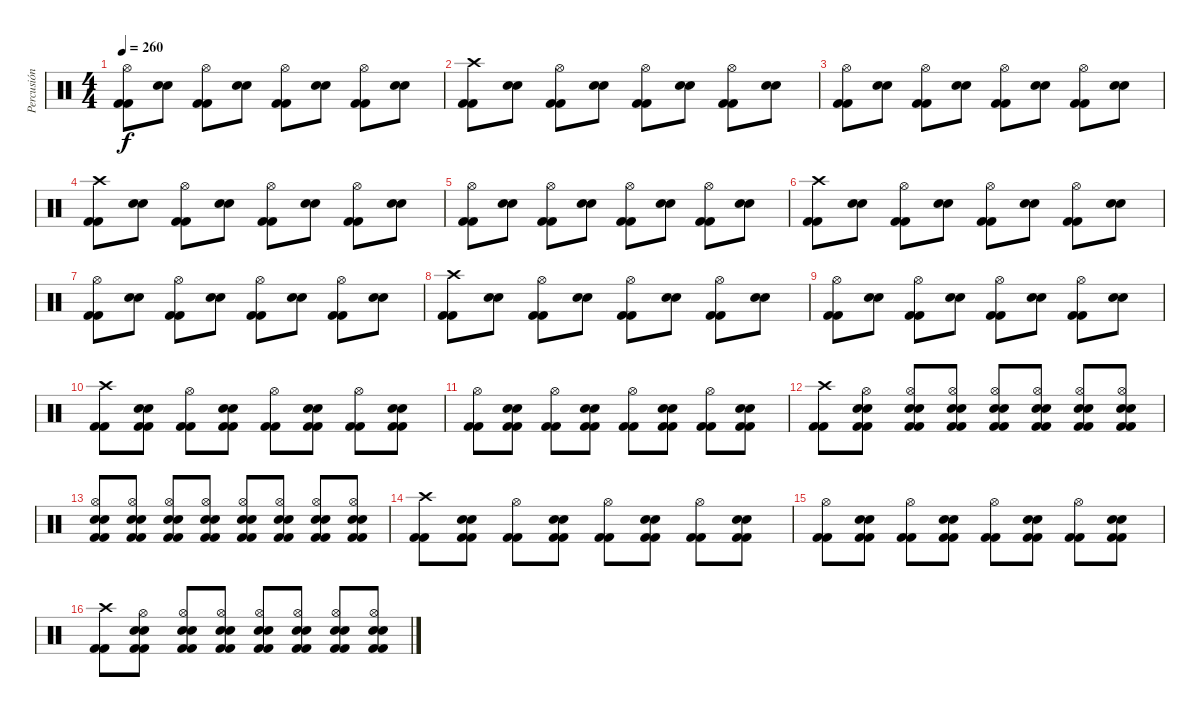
\track ("Percusión" "Percusión") {instrument percussion}
\staff {score}
\articulation defaults
\ts (4 4)
\tempo 260
\clef neutral
\ks c
("Kick (hit) 2" "Kick (hit) 2" "Hi-Hat (open)").8{dy f} ("Electric Snare (hit)" "Electric Snare (hit)").8 ("Kick (hit) 2" "Kick (hit) 2" "Hi-Hat (open)").8 ("Electric Snare (hit)" "Electric Snare (hit)").8 ("Kick (hit) 2" "Kick (hit) 2" "Hi-Hat (open)").8 ("Electric Snare (hit)" "Electric Snare (hit)").8 ("Kick (hit) 2" "Kick (hit) 2" "Hi-Hat (open)").8 ("Electric Snare (hit)" "Electric Snare (hit)").8 |
("Kick (hit) 2" "Kick (hit) 2" "Crash high (hit)").8 ("Electric Snare (hit)" "Electric Snare (hit)").8 ("Kick (hit) 2" "Kick (hit) 2" "Hi-Hat (open)").8 ("Electric Snare (hit)" "Electric Snare (hit)").8 ("Kick (hit) 2" "Kick (hit) 2" "Hi-Hat (open)").8 ("Electric Snare (hit)" "Electric Snare (hit)").8 ("Kick (hit) 2" "Kick (hit) 2" "Hi-Hat (open)").8 ("Electric Snare (hit)" "Electric Snare (hit)").8 |
("Kick (hit) 2" "Kick (hit) 2" "Hi-Hat (open)").8 ("Electric Snare (hit)" "Electric Snare (hit)").8 ("Kick (hit) 2" "Kick (hit) 2" "Hi-Hat (open)").8 ("Electric Snare (hit)" "Electric Snare (hit)").8 ("Kick (hit) 2" "Kick (hit) 2" "Hi-Hat (open)").8 ("Electric Snare (hit)" "Electric Snare (hit)").8 ("Kick (hit) 2" "Kick (hit) 2" "Hi-Hat (open)").8 ("Electric Snare (hit)" "Electric Snare (hit)").8 |
("Kick (hit) 2" "Kick (hit) 2" "Crash high (hit)").8 ("Electric Snare (hit)" "Electric Snare (hit)").8 ("Kick (hit) 2" "Kick (hit) 2" "Hi-Hat (open)").8 ("Electric Snare (hit)" "Electric Snare (hit)").8 ("Kick (hit) 2" "Kick (hit) 2" "Hi-Hat (open)").8 ("Electric Snare (hit)" "Electric Snare (hit)").8 ("Kick (hit) 2" "Kick (hit) 2" "Hi-Hat (open)").8 ("Electric Snare (hit)" "Electric Snare (hit)").8 |
("Kick (hit) 2" "Kick (hit) 2" "Hi-Hat (open)").8 ("Electric Snare (hit)" "Electric Snare (hit)").8 ("Kick (hit) 2" "Kick (hit) 2" "Hi-Hat (open)").8 ("Electric Snare (hit)" "Electric Snare (hit)").8 ("Kick (hit) 2" "Kick (hit) 2" "Hi-Hat (open)").8 ("Electric Snare (hit)" "Electric Snare (hit)").8 ("Kick (hit) 2" "Kick (hit) 2" "Hi-Hat (open)").8 ("Electric Snare (hit)" "Electric Snare (hit)").8 |
("Kick (hit) 2" "Kick (hit) 2" "Crash high (hit)").8 ("Electric Snare (hit)" "Electric Snare (hit)").8 ("Kick (hit) 2" "Kick (hit) 2" "Hi-Hat (open)").8 ("Electric Snare (hit)" "Electric Snare (hit)").8 ("Kick (hit) 2" "Kick (hit) 2" "Hi-Hat (open)").8 ("Electric Snare (hit)" "Electric Snare (hit)").8 ("Kick (hit) 2" "Kick (hit) 2" "Hi-Hat (open)").8 ("Electric Snare (hit)" "Electric Snare (hit)").8 |
("Kick (hit) 2" "Kick (hit) 2" "Hi-Hat (open)").8 ("Electric Snare (hit)" "Electric Snare (hit)").8 ("Kick (hit) 2" "Kick (hit) 2" "Hi-Hat (open)").8 ("Electric Snare (hit)" "Electric Snare (hit)").8 ("Kick (hit) 2" "Kick (hit) 2" "Hi-Hat (open)").8 ("Electric Snare (hit)" "Electric Snare (hit)").8 ("Kick (hit) 2" "Kick (hit) 2" "Hi-Hat (open)").8 ("Electric Snare (hit)" "Electric Snare (hit)").8 |
("Kick (hit) 2" "Kick (hit) 2" "Crash high (hit)").8 ("Electric Snare (hit)" "Electric Snare (hit)").8 ("Kick (hit) 2" "Kick (hit) 2" "Hi-Hat (open)").8 ("Electric Snare (hit)" "Electric Snare (hit)").8 ("Kick (hit) 2" "Kick (hit) 2" "Hi-Hat (open)").8 ("Electric Snare (hit)" "Electric Snare (hit)").8 ("Kick (hit) 2" "Kick (hit) 2" "Hi-Hat (open)").8 ("Electric Snare (hit)" "Electric Snare (hit)").8 |
("Kick (hit) 2" "Kick (hit) 2" "Hi-Hat (open)").8 ("Electric Snare (hit)" "Electric Snare (hit)").8 ("Kick (hit) 2" "Kick (hit) 2" "Hi-Hat (open)").8 ("Electric Snare (hit)" "Electric Snare (hit)").8 ("Kick (hit) 2" "Kick (hit) 2" "Hi-Hat (open)").8 ("Electric Snare (hit)" "Electric Snare (hit)").8 ("Kick (hit) 2" "Kick (hit) 2" "Hi-Hat (open)").8 ("Electric Snare (hit)" "Electric Snare (hit)").8 |
("Kick (hit) 2" "Kick (hit) 2" "Crash high (hit)").8 ("Kick (hit) 2" "Kick (hit) 2" "Electric Snare (hit)" "Electric Snare (hit)").8 ("Kick (hit) 2" "Kick (hit) 2" "Hi-Hat (open)").8 ("Kick (hit) 2" "Kick (hit) 2" "Electric Snare (hit)" "Electric Snare (hit)").8 ("Kick (hit) 2" "Kick (hit) 2" "Hi-Hat (open)").8 ("Kick (hit) 2" "Kick (hit) 2" "Electric Snare (hit)" "Electric Snare (hit)").8 ("Kick (hit) 2" "Kick (hit) 2" "Hi-Hat (open)").8 ("Kick (hit) 2" "Kick (hit) 2" "Electric Snare (hit)" "Electric Snare (hit)").8 |
("Kick (hit) 2" "Kick (hit) 2" "Hi-Hat (open)").8 ("Kick (hit) 2" "Kick (hit) 2" "Electric Snare (hit)" "Electric Snare (hit)").8 ("Kick (hit) 2" "Kick (hit) 2" "Hi-Hat (open)").8 ("Kick (hit) 2" "Kick (hit) 2" "Electric Snare (hit)" "Electric Snare (hit)").8 ("Kick (hit) 2" "Kick (hit) 2" "Hi-Hat (open)").8 ("Kick (hit) 2" "Kick (hit) 2" "Electric Snare (hit)" "Electric Snare (hit)").8 ("Kick (hit) 2" "Kick (hit) 2" "Hi-Hat (open)").8 ("Kick (hit) 2" "Kick (hit) 2" "Electric Snare (hit)" "Electric Snare (hit)").8 |
("Kick (hit) 2" "Kick (hit) 2" "Crash high (hit)").8 ("Kick (hit) 2" "Kick (hit) 2" "Electric Snare (hit)" "Electric Snare (hit)" "Hi-Hat (open)").8 ("Kick (hit) 2" "Kick (hit) 2" "Electric Snare (hit)" "Electric Snare (hit)" "Hi-Hat (open)").8 ("Kick (hit) 2" "Kick (hit) 2" "Electric Snare (hit)" "Electric Snare (hit)" "Hi-Hat (open)").8 ("Kick (hit) 2" "Kick (hit) 2" "Electric Snare (hit)" "Electric Snare (hit)" "Hi-Hat (open)").8 ("Kick (hit) 2" "Kick (hit) 2" "Electric Snare (hit)" "Electric Snare (hit)" "Hi-Hat (open)").8 ("Kick (hit) 2" "Kick (hit) 2" "Electric Snare (hit)" "Electric Snare (hit)" "Hi-Hat (open)").8 ("Kick (hit) 2" "Kick (hit) 2" "Electric Snare (hit)" "Electric Snare (hit)" "Hi-Hat (open)").8 |
("Kick (hit) 2" "Kick (hit) 2" "Electric Snare (hit)" "Electric Snare (hit)" "Hi-Hat (open)").8 ("Kick (hit) 2" "Kick (hit) 2" "Electric Snare (hit)" "Electric Snare (hit)" "Hi-Hat (open)").8 ("Kick (hit) 2" "Kick (hit) 2" "Electric Snare (hit)" "Electric Snare (hit)" "Hi-Hat (open)").8 ("Kick (hit) 2" "Kick (hit) 2" "Electric Snare (hit)" "Electric Snare (hit)" "Hi-Hat (open)").8 ("Kick (hit) 2" "Kick (hit) 2" "Electric Snare (hit)" "Electric Snare (hit)" "Hi-Hat (open)").8 ("Kick (hit) 2" "Kick (hit) 2" "Electric Snare (hit)" "Electric Snare (hit)" "Hi-Hat (open)").8 ("Kick (hit) 2" "Kick (hit) 2" "Electric Snare (hit)" "Electric Snare (hit)" "Hi-Hat (open)").8 ("Kick (hit) 2" "Kick (hit) 2" "Electric Snare (hit)" "Electric Snare (hit)" "Hi-Hat (open)").8 |
("Kick (hit) 2" "Kick (hit) 2" "Crash high (hit)").8 ("Kick (hit) 2" "Kick (hit) 2" "Electric Snare (hit)" "Electric Snare (hit)").8 ("Kick (hit) 2" "Kick (hit) 2" "Hi-Hat (open)").8 ("Kick (hit) 2" "Kick (hit) 2" "Electric Snare (hit)" "Electric Snare (hit)").8 ("Kick (hit) 2" "Kick (hit) 2" "Hi-Hat (open)").8 ("Kick (hit) 2" "Kick (hit) 2" "Electric Snare (hit)" "Electric Snare (hit)").8 ("Kick (hit) 2" "Kick (hit) 2" "Hi-Hat (open)").8 ("Kick (hit) 2" "Kick (hit) 2" "Electric Snare (hit)" "Electric Snare (hit)").8 |
("Kick (hit) 2" "Kick (hit) 2" "Hi-Hat (open)").8 ("Kick (hit) 2" "Kick (hit) 2" "Electric Snare (hit)" "Electric Snare (hit)").8 ("Kick (hit) 2" "Kick (hit) 2" "Hi-Hat (open)").8 ("Kick (hit) 2" "Kick (hit) 2" "Electric Snare (hit)" "Electric Snare (hit)").8 ("Kick (hit) 2" "Kick (hit) 2" "Hi-Hat (open)").8 ("Kick (hit) 2" "Kick (hit) 2" "Electric Snare (hit)" "Electric Snare (hit)").8 ("Kick (hit) 2" "Kick (hit) 2" "Hi-Hat (open)").8 ("Kick (hit) 2" "Kick (hit) 2" "Electric Snare (hit)" "Electric Snare (hit)").8 |
("Kick (hit) 2" "Kick (hit) 2" "Crash high (hit)").8 ("Kick (hit) 2" "Kick (hit) 2" "Electric Snare (hit)" "Electric Snare (hit)" "Hi-Hat (open)").8 ("Kick (hit) 2" "Kick (hit) 2" "Electric Snare (hit)" "Electric Snare (hit)" "Hi-Hat (open)").8 ("Kick (hit) 2" "Kick (hit) 2" "Electric Snare (hit)" "Electric Snare (hit)" "Hi-Hat (open)").8 ("Kick (hit) 2" "Kick (hit) 2" "Electric Snare (hit)" "Electric Snare (hit)" "Hi-Hat (open)").8 ("Kick (hit) 2" "Kick (hit) 2" "Electric Snare (hit)" "Electric Snare (hit)" "Hi-Hat (open)").8 ("Kick (hit) 2" "Kick (hit) 2" "Electric Snare (hit)" "Electric Snare (hit)" "Hi-Hat (open)").8 ("Kick (hit) 2" "Kick (hit) 2" "Electric Snare (hit)" "Electric Snare (hit)" "Hi-Hat (open)").8
